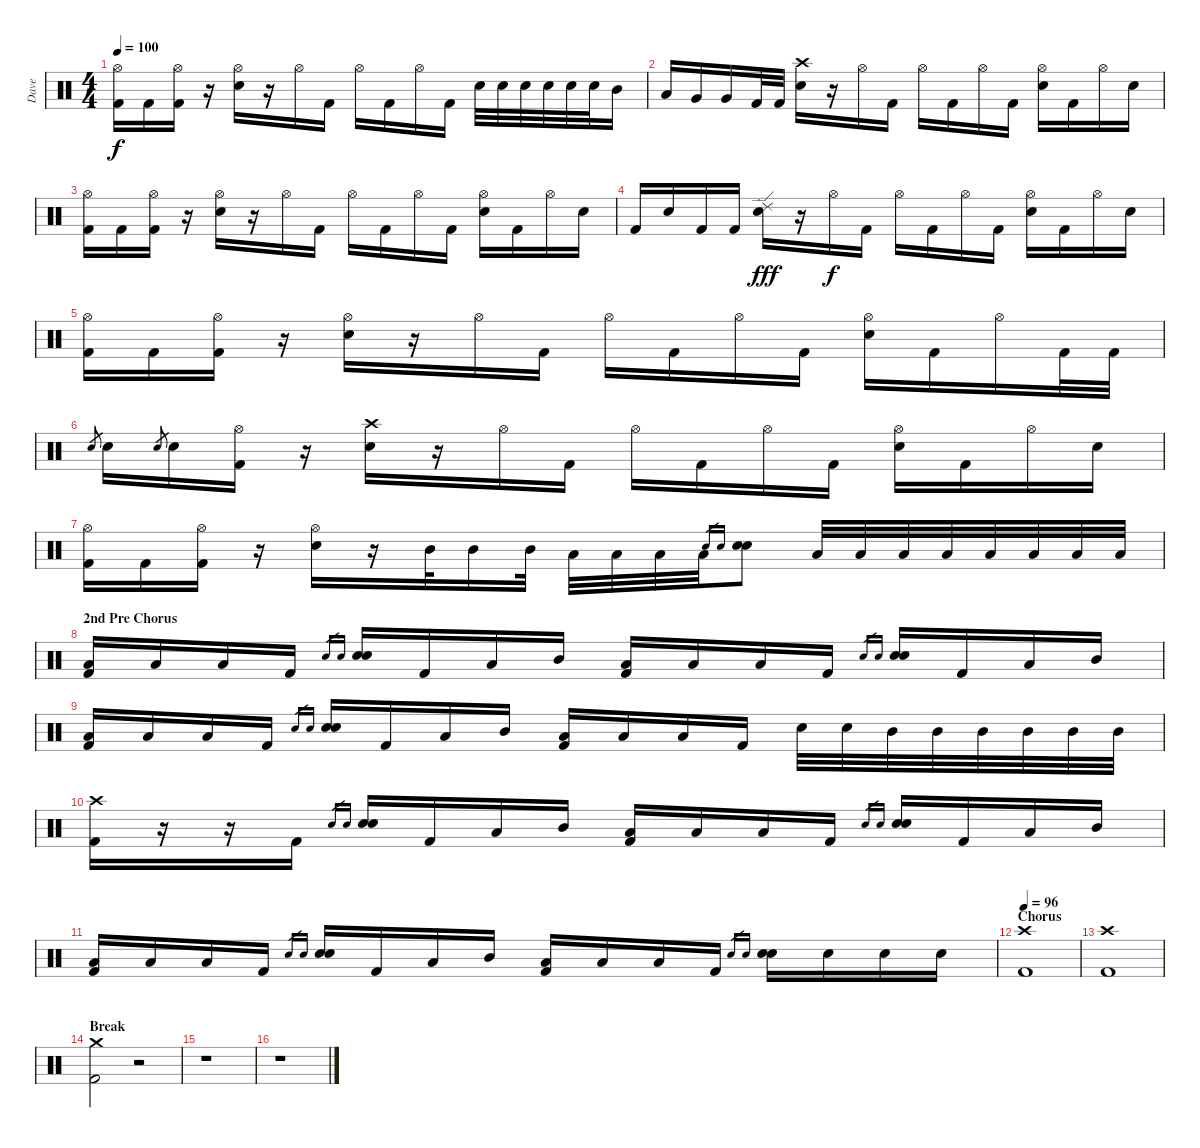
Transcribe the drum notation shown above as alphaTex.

\track ("Dave" "Dave") {instrument percussion}
\staff {score}
\articulation defaults
\ts (4 4)
\tempo 100
\clef neutral
\ks c
("Hi-Hat (open)" "Kick (hit) 2").16{dy f} "Kick (hit) 2".16 ("Hi-Hat (open)" "Kick (hit) 2").16 r.16 ("Hi-Hat (open)" "Electric Snare (hit)").16 r.16 "Hi-Hat (open)".16 "Kick (hit) 2".16 "Hi-Hat (open)".16 "Kick (hit) 2".16 "Hi-Hat (open)".16 "Kick (hit) 2".16 "Electric Snare (hit)".32 "Electric Snare (hit)".32 "Electric Snare (hit)".32 "Electric Snare (hit)".32 "Electric Snare (hit)".32 "Electric Snare (hit)".32 "Mid Tom (hit)".16 |
"Low Tom (hit)".16 "Very Low Tom (hit)".16 "Very Low Tom (hit)".16 "Kick (hit) 2".32 "Kick (hit) 2".32 ("Crash high (hit)" "Electric Snare (hit)").16 r.16 "Hi-Hat (open)".16 "Kick (hit) 2".16 "Hi-Hat (open)".16 "Kick (hit) 2".16 "Hi-Hat (open)".16 "Kick (hit) 2".16 ("Hi-Hat (open)" "Electric Snare (hit)").16 "Kick (hit) 2".16 "Hi-Hat (open)".16 "Electric Snare (hit)".16 |
("Hi-Hat (open)" "Kick (hit) 2").16 "Kick (hit) 2".16 ("Hi-Hat (open)" "Kick (hit) 2").16 r.16 ("Hi-Hat (open)" "Electric Snare (hit)").16 r.16 "Hi-Hat (open)".16 "Kick (hit) 2".16 "Hi-Hat (open)".16 "Kick (hit) 2".16 "Hi-Hat (open)".16 "Kick (hit) 2".16 ("Hi-Hat (open)" "Electric Snare (hit)").16 "Kick (hit) 2".16 "Hi-Hat (open)".16 "Electric Snare (hit)".16 |
"Kick (hit) 2".16 "Electric Snare (hit)".16 "Kick (hit) 2".16 "Kick (hit) 2".16 ("Ride (edge) 2" "Electric Snare (hit)").16{dy fff} r.16 "Hi-Hat (open)".16{dy f} "Kick (hit) 2".16 "Hi-Hat (open)".16 "Kick (hit) 2".16 "Hi-Hat (open)".16 "Kick (hit) 2".16 ("Hi-Hat (open)" "Electric Snare (hit)").16 "Kick (hit) 2".16 "Hi-Hat (open)".16 "Electric Snare (hit)".16 |
("Hi-Hat (open)" "Kick (hit) 2").16 "Kick (hit) 2".16 ("Hi-Hat (open)" "Kick (hit) 2").16 r.16 ("Hi-Hat (open)" "Electric Snare (hit)").16 r.16 "Hi-Hat (open)".16 "Kick (hit) 2".16 "Hi-Hat (open)".16 "Kick (hit) 2".16 "Hi-Hat (open)".16 "Kick (hit) 2".16 ("Hi-Hat (open)" "Electric Snare (hit)").16 "Kick (hit) 2".16 "Hi-Hat (open)".16 "Kick (hit) 2".32 "Kick (hit) 2".32 |
"Electric Snare (hit)".8{gr} "Electric Snare (hit)".16 "Electric Snare (hit)".8{gr} "Electric Snare (hit)".16 ("Hi-Hat (open)" "Kick (hit) 2").16 r.16 ("Crash high (hit)" "Electric Snare (hit)").16 r.16 "Hi-Hat (open)".16 "Kick (hit) 2".16 "Hi-Hat (open)".16 "Kick (hit) 2".16 "Hi-Hat (open)".16 "Kick (hit) 2".16 ("Hi-Hat (open)" "Electric Snare (hit)").16 "Kick (hit) 2".16 "Hi-Hat (open)".16 "Electric Snare (hit)".16 |
("Hi-Hat (open)" "Kick (hit) 2").16 "Kick (hit) 2".16 ("Hi-Hat (open)" "Kick (hit) 2").16 r.16 ("Hi-Hat (open)" "Electric Snare (hit)").16 r.16 "Mid Tom (hit)".32 "Mid Tom (hit)".16 "Mid Tom (hit)".32 "Low Tom (hit)".32 "Low Tom (hit)".32 "Low Tom (hit)".32 "Low Tom (hit)".32 "Electric Snare (hit)".16{gr} "Electric Snare (hit)".16{gr} ("Electric Snare (hit)" "Electric Snare (hit)").8 "Low Tom (hit)".32 "Low Tom (hit)".32 "Low Tom (hit)".32 "Low Tom (hit)".32 "Low Floor Tom (hit)".32 "Low Floor Tom (hit)".32 "Low Floor Tom (hit)".32 "Low Floor Tom (hit)".32 |
\section ("" "2nd Pre Chorus")
("Low Floor Tom (hit)" "Kick (hit) 2").16 "Low Floor Tom (hit)".16 "Low Floor Tom (hit)".16 "Kick (hit) 2".16 "Electric Snare (hit)".16{gr} "Electric Snare (hit)".16{gr} ("Electric Snare (hit)" "Electric Snare (hit)").16 "Kick (hit) 2".16 "Low Floor Tom (hit)".16 "Mid Tom (hit)".16 ("Low Floor Tom (hit)" "Kick (hit) 2").16 "Low Floor Tom (hit)".16 "Low Floor Tom (hit)".16 "Kick (hit) 2".16 "Electric Snare (hit)".16{gr} "Electric Snare (hit)".16{gr} ("Electric Snare (hit)" "Electric Snare (hit)").16 "Kick (hit) 2".16 "Low Floor Tom (hit)".16 "Mid Tom (hit)".16 |
("Low Floor Tom (hit)" "Kick (hit) 2").16 "Low Floor Tom (hit)".16 "Low Floor Tom (hit)".16 "Kick (hit) 2".16 "Electric Snare (hit)".16{gr} "Electric Snare (hit)".16{gr} ("Electric Snare (hit)" "Electric Snare (hit)").16 "Kick (hit) 2".16 "Low Floor Tom (hit)".16 "Mid Tom (hit)".16 ("Low Floor Tom (hit)" "Kick (hit) 2").16 "Low Floor Tom (hit)".16 "Low Floor Tom (hit)".16 "Kick (hit) 2".16 "Electric Snare (hit)".32 "Electric Snare (hit)".32 "Mid Tom (hit)".32 "Mid Tom (hit)".32 "Mid Tom (hit)".32 "Mid Tom (hit)".32 "Mid Tom (hit)".32 "Mid Tom (hit)".32 |
("Crash high (hit)" "Kick (hit) 2").16 r.16 r.16 "Kick (hit) 2".16 "Electric Snare (hit)".16{gr} "Electric Snare (hit)".16{gr} ("Electric Snare (hit)" "Electric Snare (hit)").16 "Kick (hit) 2".16 "Low Floor Tom (hit)".16 "Mid Tom (hit)".16 ("Low Floor Tom (hit)" "Kick (hit) 2").16 "Low Floor Tom (hit)".16 "Low Floor Tom (hit)".16 "Kick (hit) 2".16 "Electric Snare (hit)".16{gr} "Electric Snare (hit)".16{gr} ("Electric Snare (hit)" "Electric Snare (hit)").16 "Kick (hit) 2".16 "Low Floor Tom (hit)".16 "Mid Tom (hit)".16 |
("Low Floor Tom (hit)" "Kick (hit) 2").16 "Low Floor Tom (hit)".16 "Low Floor Tom (hit)".16 "Kick (hit) 2".16 "Electric Snare (hit)".16{gr} "Electric Snare (hit)".16{gr} ("Electric Snare (hit)" "Electric Snare (hit)").16 "Kick (hit) 2".16 "Low Floor Tom (hit)".16 "Mid Tom (hit)".16 ("Low Floor Tom (hit)" "Kick (hit) 2").16 "Low Floor Tom (hit)".16 "Low Floor Tom (hit)".16 "Kick (hit) 2".16 "Electric Snare (hit)".16{gr} "Electric Snare (hit)".16{gr} ("Electric Snare (hit)" "Electric Snare (hit)").16 "Electric Snare (hit)".16 "Electric Snare (hit)".16 "Electric Snare (hit)".16 |
\section ("" "Chorus")
\tempo 96
("Crash high (hit)" "Kick (hit) 2").1 |
("Crash high (hit)" "Kick (hit) 2").1 |
\section ("" "Break")
("Crash medium (hit)" "Kick (hit) 2").2 r.2 |
r.1 |
r.1
